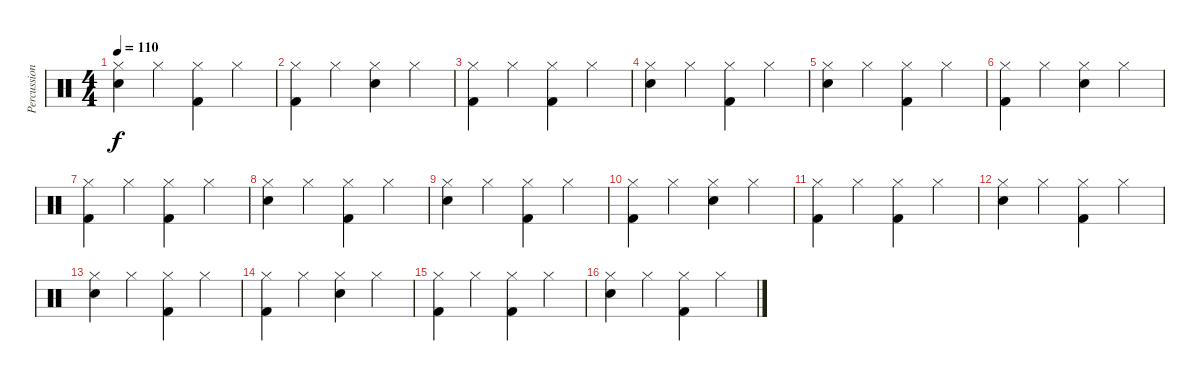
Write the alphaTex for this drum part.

\track ("Percussion" "Percussion") {instrument percussion}
\staff {score}
\articulation defaults
\ts (4 4)
\tempo 110
\clef neutral
\ks c
("Hi-Hat (closed)" "Snare (hit) 2").4{dy f} "Hi-Hat (closed)".4 ("Hi-Hat (closed)" "Kick (hit) 2").4 "Hi-Hat (closed)".4 |
("Hi-Hat (closed)" "Kick (hit) 2").4 "Hi-Hat (closed)".4 ("Hi-Hat (closed)" "Snare (hit) 2").4 "Hi-Hat (closed)".4 |
("Hi-Hat (closed)" "Kick (hit) 2").4 "Hi-Hat (closed)".4 ("Hi-Hat (closed)" "Kick (hit) 2").4 "Hi-Hat (closed)".4 |
("Hi-Hat (closed)" "Snare (hit) 2").4 "Hi-Hat (closed)".4 ("Hi-Hat (closed)" "Kick (hit) 2").4 "Hi-Hat (closed)".4 |
("Hi-Hat (closed)" "Snare (hit) 2").4 "Hi-Hat (closed)".4 ("Hi-Hat (closed)" "Kick (hit) 2").4 "Hi-Hat (closed)".4 |
("Hi-Hat (closed)" "Kick (hit) 2").4 "Hi-Hat (closed)".4 ("Hi-Hat (closed)" "Snare (hit) 2").4 "Hi-Hat (closed)".4 |
("Hi-Hat (closed)" "Kick (hit) 2").4 "Hi-Hat (closed)".4 ("Hi-Hat (closed)" "Kick (hit) 2").4 "Hi-Hat (closed)".4 |
("Hi-Hat (closed)" "Snare (hit) 2").4 "Hi-Hat (closed)".4 ("Hi-Hat (closed)" "Kick (hit) 2").4 "Hi-Hat (closed)".4 |
("Hi-Hat (closed)" "Snare (hit) 2").4 "Hi-Hat (closed)".4 ("Hi-Hat (closed)" "Kick (hit) 2").4 "Hi-Hat (closed)".4 |
("Hi-Hat (closed)" "Kick (hit) 2").4 "Hi-Hat (closed)".4 ("Hi-Hat (closed)" "Snare (hit) 2").4 "Hi-Hat (closed)".4 |
("Hi-Hat (closed)" "Kick (hit) 2").4 "Hi-Hat (closed)".4 ("Hi-Hat (closed)" "Kick (hit) 2").4 "Hi-Hat (closed)".4 |
("Hi-Hat (closed)" "Snare (hit) 2").4 "Hi-Hat (closed)".4 ("Hi-Hat (closed)" "Kick (hit) 2").4 "Hi-Hat (closed)".4 |
("Hi-Hat (closed)" "Snare (hit) 2").4 "Hi-Hat (closed)".4 ("Hi-Hat (closed)" "Kick (hit) 2").4 "Hi-Hat (closed)".4 |
("Hi-Hat (closed)" "Kick (hit) 2").4 "Hi-Hat (closed)".4 ("Hi-Hat (closed)" "Snare (hit) 2").4 "Hi-Hat (closed)".4 |
("Hi-Hat (closed)" "Kick (hit) 2").4 "Hi-Hat (closed)".4 ("Hi-Hat (closed)" "Kick (hit) 2").4 "Hi-Hat (closed)".4 |
("Hi-Hat (closed)" "Snare (hit) 2").4 "Hi-Hat (closed)".4 ("Hi-Hat (closed)" "Kick (hit) 2").4 "Hi-Hat (closed)".4
